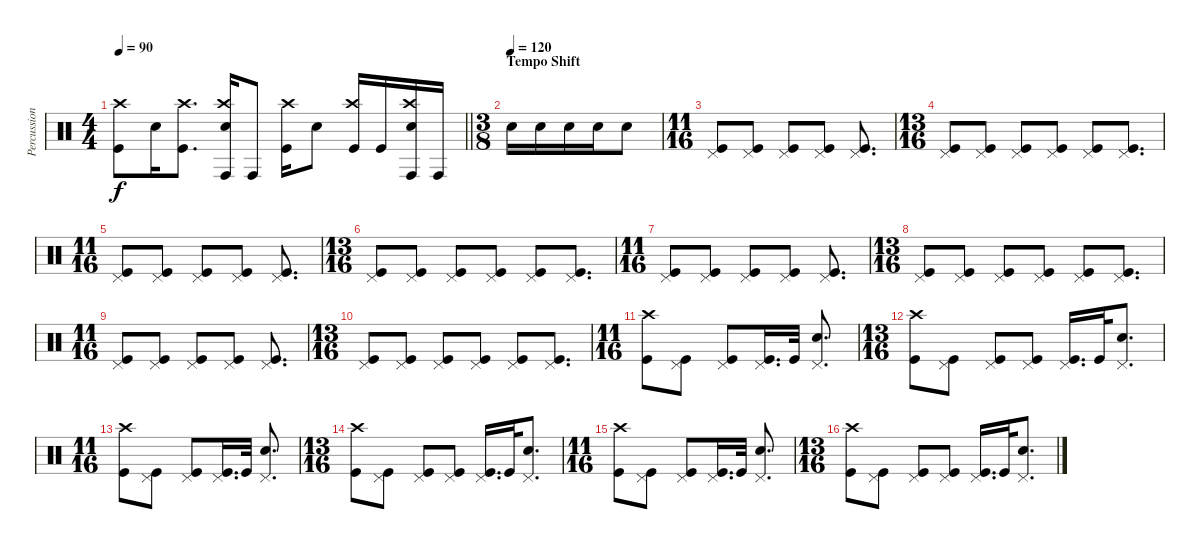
\track ("Percussion" "Percussion") {instrument percussion}
\staff {score}
\articulation defaults
\ts (4 4)
\tempo 90
\clef neutral
\barLineRight lightlight
\ks c
("Crash high (hit)" "Kick (hit)").8{dy f} "Snare (hit) 2".16 ("Crash high (hit)" "Kick (hit)").8{d} ("Crash high (hit)" "Snare (hit) 2" "Conga high (hit)").16 "Conga high (hit)".8 ("Crash high (hit)" "Kick (hit)").16 "Snare (hit) 2".8 ("Crash high (hit)" "Kick (hit)").16 "Kick (hit)".16 ("Crash high (hit)" "Snare (hit) 2" "Conga high (hit)").16 "Conga high (hit)".16 |
\ts (3 8)
\section ("" "Tempo Shift")
\tempo (120)
"Snare (hit) 2".16 "Snare (hit) 2".16 "Snare (hit) 2".16 "Snare (hit) 2".16 "Snare (hit) 2".8 |
\ts (11 16)
("Pedal Hi-Hat (hit)" "Kick (hit)").8 ("Pedal Hi-Hat (hit)" "Kick (hit)").8 ("Pedal Hi-Hat (hit)" "Kick (hit)").8 ("Pedal Hi-Hat (hit)" "Kick (hit)").8 ("Pedal Hi-Hat (hit)" "Kick (hit)").8{d} |
\ts (13 16)
("Pedal Hi-Hat (hit)" "Kick (hit)").8 ("Pedal Hi-Hat (hit)" "Kick (hit)").8 ("Pedal Hi-Hat (hit)" "Kick (hit)").8 ("Pedal Hi-Hat (hit)" "Kick (hit)").8 ("Pedal Hi-Hat (hit)" "Kick (hit)").8 ("Pedal Hi-Hat (hit)" "Kick (hit)").8{d} |
\ts (11 16)
("Pedal Hi-Hat (hit)" "Kick (hit)").8 ("Pedal Hi-Hat (hit)" "Kick (hit)").8 ("Pedal Hi-Hat (hit)" "Kick (hit)").8 ("Pedal Hi-Hat (hit)" "Kick (hit)").8 ("Pedal Hi-Hat (hit)" "Kick (hit)").8{d} |
\ts (13 16)
("Pedal Hi-Hat (hit)" "Kick (hit)").8 ("Pedal Hi-Hat (hit)" "Kick (hit)").8 ("Pedal Hi-Hat (hit)" "Kick (hit)").8 ("Pedal Hi-Hat (hit)" "Kick (hit)").8 ("Pedal Hi-Hat (hit)" "Kick (hit)").8 ("Pedal Hi-Hat (hit)" "Kick (hit)").8{d} |
\ts (11 16)
("Pedal Hi-Hat (hit)" "Kick (hit)").8 ("Pedal Hi-Hat (hit)" "Kick (hit)").8 ("Pedal Hi-Hat (hit)" "Kick (hit)").8 ("Pedal Hi-Hat (hit)" "Kick (hit)").8 ("Pedal Hi-Hat (hit)" "Kick (hit)").8{d} |
\ts (13 16)
("Pedal Hi-Hat (hit)" "Kick (hit)").8 ("Pedal Hi-Hat (hit)" "Kick (hit)").8 ("Pedal Hi-Hat (hit)" "Kick (hit)").8 ("Pedal Hi-Hat (hit)" "Kick (hit)").8 ("Pedal Hi-Hat (hit)" "Kick (hit)").8 ("Pedal Hi-Hat (hit)" "Kick (hit)").8{d} |
\ts (11 16)
("Pedal Hi-Hat (hit)" "Kick (hit)").8 ("Pedal Hi-Hat (hit)" "Kick (hit)").8 ("Pedal Hi-Hat (hit)" "Kick (hit)").8 ("Pedal Hi-Hat (hit)" "Kick (hit)").8 ("Pedal Hi-Hat (hit)" "Kick (hit)").8{d} |
\ts (13 16)
("Pedal Hi-Hat (hit)" "Kick (hit)").8 ("Pedal Hi-Hat (hit)" "Kick (hit)").8 ("Pedal Hi-Hat (hit)" "Kick (hit)").8 ("Pedal Hi-Hat (hit)" "Kick (hit)").8 ("Pedal Hi-Hat (hit)" "Kick (hit)").8 ("Pedal Hi-Hat (hit)" "Kick (hit)").8{d} |
\ts (11 16)
("Crash high (hit)" "Kick (hit)").8 ("Pedal Hi-Hat (hit)" "Kick (hit)").8 ("Pedal Hi-Hat (hit)" "Kick (hit)").8 ("Pedal Hi-Hat (hit)" "Kick (hit)").16{d} "Kick (hit)".32 ("Pedal Hi-Hat (hit)" "Snare (hit) 2").8{d} |
\ts (13 16)
("Crash high (hit)" "Kick (hit)").8 ("Pedal Hi-Hat (hit)" "Kick (hit)").8 ("Pedal Hi-Hat (hit)" "Kick (hit)").8 ("Pedal Hi-Hat (hit)" "Kick (hit)").8 ("Pedal Hi-Hat (hit)" "Kick (hit)").16{d} "Kick (hit)".32 ("Pedal Hi-Hat (hit)" "Snare (hit) 2").8{d} |
\ts (11 16)
("Crash high (hit)" "Kick (hit)").8 ("Pedal Hi-Hat (hit)" "Kick (hit)").8 ("Pedal Hi-Hat (hit)" "Kick (hit)").8 ("Pedal Hi-Hat (hit)" "Kick (hit)").16{d} "Kick (hit)".32 ("Pedal Hi-Hat (hit)" "Snare (hit) 2").8{d} |
\ts (13 16)
("Crash high (hit)" "Kick (hit)").8 ("Pedal Hi-Hat (hit)" "Kick (hit)").8 ("Pedal Hi-Hat (hit)" "Kick (hit)").8 ("Pedal Hi-Hat (hit)" "Kick (hit)").8 ("Pedal Hi-Hat (hit)" "Kick (hit)").16{d} "Kick (hit)".32 ("Pedal Hi-Hat (hit)" "Snare (hit) 2").8{d} |
\ts (11 16)
("Crash high (hit)" "Kick (hit)").8 ("Pedal Hi-Hat (hit)" "Kick (hit)").8 ("Pedal Hi-Hat (hit)" "Kick (hit)").8 ("Pedal Hi-Hat (hit)" "Kick (hit)").16{d} "Kick (hit)".32 ("Pedal Hi-Hat (hit)" "Snare (hit) 2").8{d} |
\ts (13 16)
("Crash high (hit)" "Kick (hit)").8 ("Pedal Hi-Hat (hit)" "Kick (hit)").8 ("Pedal Hi-Hat (hit)" "Kick (hit)").8 ("Pedal Hi-Hat (hit)" "Kick (hit)").8 ("Pedal Hi-Hat (hit)" "Kick (hit)").16{d} "Kick (hit)".32 ("Pedal Hi-Hat (hit)" "Snare (hit) 2").8{d}
